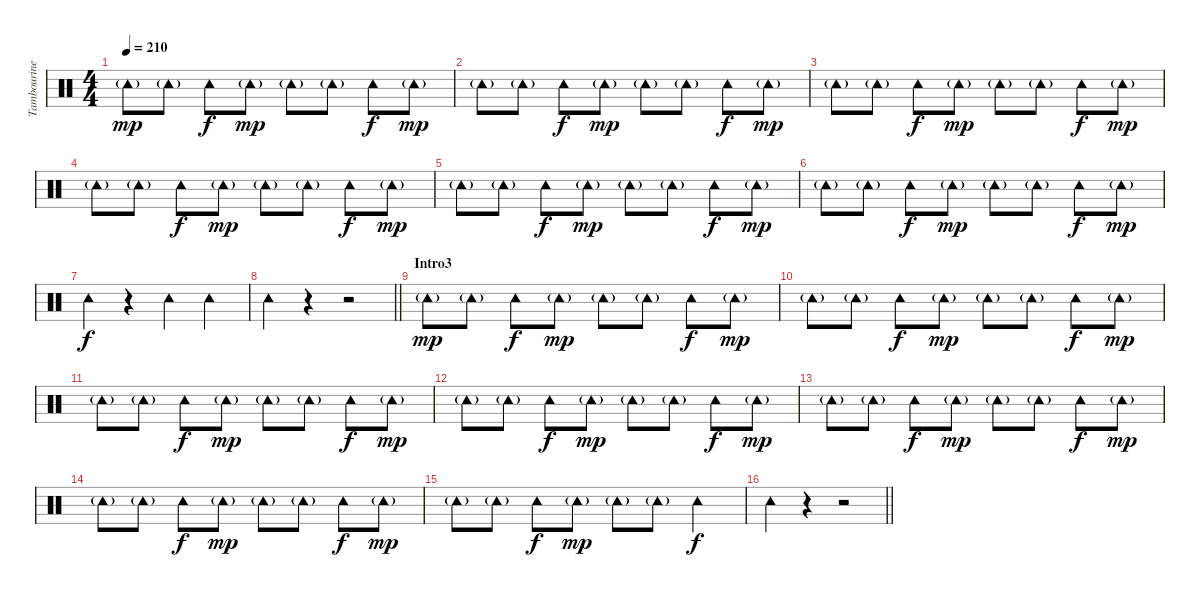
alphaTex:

\track ("Tambourine" "Tambourine") {instrument percussion}
\staff {score}
\articulation defaults
\ts (4 4)
\tempo 210
\clef neutral
\ks c "Tambourine (hit)"{g}.8{dy mp} "Tambourine (hit)"{g}.8 "Tambourine (hit)".8{dy f} "Tambourine (hit)"{g}.8{dy mp} "Tambourine (hit)"{g}.8 "Tambourine (hit)"{g}.8 "Tambourine (hit)".8{dy f} "Tambourine (hit)"{g}.8{dy mp}
|
"Tambourine (hit)"{g}.8 "Tambourine (hit)"{g}.8 "Tambourine (hit)".8{dy f} "Tambourine (hit)"{g}.8{dy mp} "Tambourine (hit)"{g}.8 "Tambourine (hit)"{g}.8 "Tambourine (hit)".8{dy f} "Tambourine (hit)"{g}.8{dy mp} |
"Tambourine (hit)"{g}.8 "Tambourine (hit)"{g}.8 "Tambourine (hit)".8{dy f} "Tambourine (hit)"{g}.8{dy mp} "Tambourine (hit)"{g}.8 "Tambourine (hit)"{g}.8 "Tambourine (hit)".8{dy f} "Tambourine (hit)"{g}.8{dy mp} |
"Tambourine (hit)"{g}.8 "Tambourine (hit)"{g}.8 "Tambourine (hit)".8{dy f} "Tambourine (hit)"{g}.8{dy mp} "Tambourine (hit)"{g}.8 "Tambourine (hit)"{g}.8 "Tambourine (hit)".8{dy f} "Tambourine (hit)"{g}.8{dy mp} |
"Tambourine (hit)"{g}.8 "Tambourine (hit)"{g}.8 "Tambourine (hit)".8{dy f} "Tambourine (hit)"{g}.8{dy mp} "Tambourine (hit)"{g}.8 "Tambourine (hit)"{g}.8 "Tambourine (hit)".8{dy f} "Tambourine (hit)"{g}.8{dy mp} |
"Tambourine (hit)"{g}.8 "Tambourine (hit)"{g}.8 "Tambourine (hit)".8{dy f} "Tambourine (hit)"{g}.8{dy mp} "Tambourine (hit)"{g}.8 "Tambourine (hit)"{g}.8 "Tambourine (hit)".8{dy f} "Tambourine (hit)"{g}.8{dy mp} |
"Tambourine (hit)".4{dy f} r.4 "Tambourine (hit)".4 "Tambourine (hit)".4 |
\barLineRight lightlight "Tambourine (hit)".4
r.4 r.2 |
\section ("" "Intro3")
"Tambourine (hit)"{g}.8{dy mp} "Tambourine (hit)"{g}.8 "Tambourine (hit)".8{dy f} "Tambourine (hit)"{g}.8{dy mp} "Tambourine (hit)"{g}.8 "Tambourine (hit)"{g}.8 "Tambourine (hit)".8{dy f} "Tambourine (hit)"{g}.8{dy mp} |
"Tambourine (hit)"{g}.8 "Tambourine (hit)"{g}.8 "Tambourine (hit)".8{dy f} "Tambourine (hit)"{g}.8{dy mp} "Tambourine (hit)"{g}.8 "Tambourine (hit)"{g}.8 "Tambourine (hit)".8{dy f} "Tambourine (hit)"{g}.8{dy mp} |
"Tambourine (hit)"{g}.8 "Tambourine (hit)"{g}.8 "Tambourine (hit)".8{dy f} "Tambourine (hit)"{g}.8{dy mp} "Tambourine (hit)"{g}.8 "Tambourine (hit)"{g}.8 "Tambourine (hit)".8{dy f} "Tambourine (hit)"{g}.8{dy mp} |
"Tambourine (hit)"{g}.8 "Tambourine (hit)"{g}.8 "Tambourine (hit)".8{dy f} "Tambourine (hit)"{g}.8{dy mp} "Tambourine (hit)"{g}.8 "Tambourine (hit)"{g}.8 "Tambourine (hit)".8{dy f} "Tambourine (hit)"{g}.8{dy mp} |
"Tambourine (hit)"{g}.8 "Tambourine (hit)"{g}.8 "Tambourine (hit)".8{dy f} "Tambourine (hit)"{g}.8{dy mp} "Tambourine (hit)"{g}.8 "Tambourine (hit)"{g}.8 "Tambourine (hit)".8{dy f} "Tambourine (hit)"{g}.8{dy mp} |
"Tambourine (hit)"{g}.8 "Tambourine (hit)"{g}.8 "Tambourine (hit)".8{dy f} "Tambourine (hit)"{g}.8{dy mp} "Tambourine (hit)"{g}.8 "Tambourine (hit)"{g}.8 "Tambourine (hit)".8{dy f} "Tambourine (hit)"{g}.8{dy mp} |
"Tambourine (hit)"{g}.8 "Tambourine (hit)"{g}.8 "Tambourine (hit)".8{dy f} "Tambourine (hit)"{g}.8{dy mp} "Tambourine (hit)"{g}.8 "Tambourine (hit)"{g}.8 "Tambourine (hit)".4{dy f} |
\barLineRight lightlight "Tambourine (hit)".4
r.4 r.2
